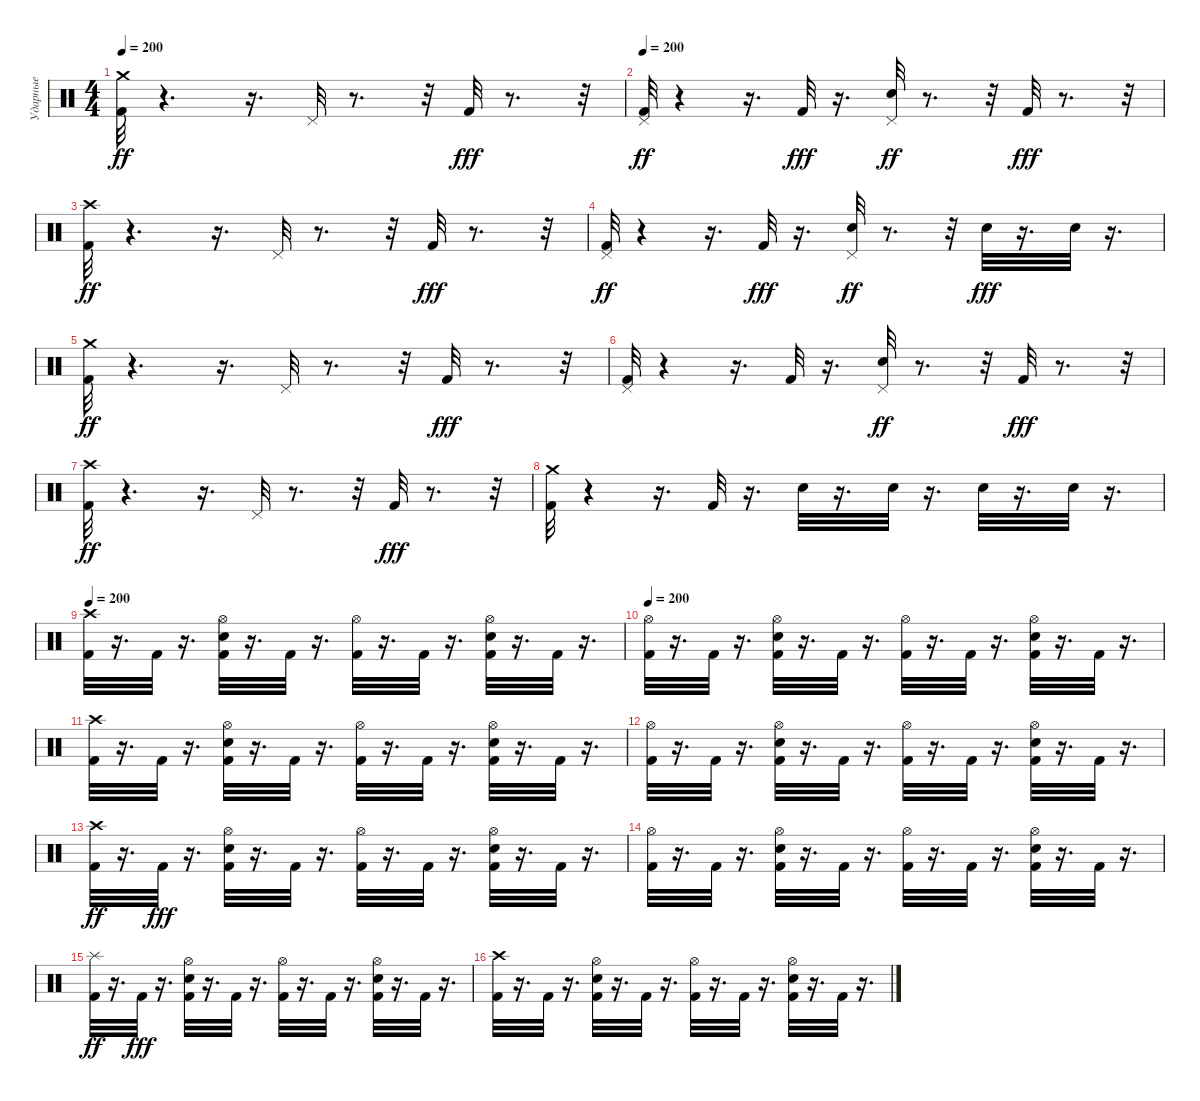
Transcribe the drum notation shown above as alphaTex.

\track ("Ударные" "Ударные") {instrument percussion}
\staff {score}
\articulation defaults
\ts (4 4)
\tempo 200
\clef neutral
\ks c
("Kick (hit) 2" "Crash medium (hit)").32{dy ff} r.4{d} r.16{d} "Pedal Hi-Hat (hit)".32 r.8{d} r.32 "Kick (hit) 2".32{dy fff} r.8{d} r.32 |
\tempo 200
("Kick (hit) 2" "Pedal Hi-Hat (hit)").32{dy ff} r.4 r.16{d} "Kick (hit) 2".32{dy fff} r.16{d} ("Snare (hit) 2" "Pedal Hi-Hat (hit)").32{dy ff} r.8{d} r.32 "Kick (hit) 2".32{dy fff} r.8{d} r.32 |
("Kick (hit) 2" "Crash high (hit)").32{dy ff} r.4{d} r.16{d} "Pedal Hi-Hat (hit)".32 r.8{d} r.32 "Kick (hit) 2".32{dy fff} r.8{d} r.32 |
("Kick (hit) 2" "Pedal Hi-Hat (hit)").32{dy ff} r.4 r.16{d} "Kick (hit) 2".32{dy fff} r.16{d} ("Snare (hit) 2" "Pedal Hi-Hat (hit)").32{dy ff} r.8{d} r.32 "Snare (hit) 2".32{dy fff} r.16{d} "Snare (hit) 2".32 r.16{d} |
("Kick (hit) 2" "Crash medium (hit)").32{dy ff} r.4{d} r.16{d} "Pedal Hi-Hat (hit)".32 r.8{d} r.32 "Kick (hit) 2".32{dy fff} r.8{d} r.32 |
("Pedal Hi-Hat (hit)" "Kick (hit) 2").32 r.4 r.16{d} "Kick (hit) 2".32 r.16{d} ("Snare (hit) 2" "Pedal Hi-Hat (hit)").32{dy ff} r.8{d} r.32 "Kick (hit) 2".32{dy fff} r.8{d} r.32 |
("Kick (hit) 2" "Crash high (hit)").32{dy ff} r.4{d} r.16{d} "Pedal Hi-Hat (hit)".32 r.8{d} r.32 "Kick (hit) 2".32{dy fff} r.8{d} r.32 |
("Crash medium (hit)" "Kick (hit) 2").32 r.4 r.16{d} "Kick (hit) 2".32 r.16{d} "Snare (hit) 2".32 r.16{d} "Snare (hit) 2".32 r.16{d} "Snare (hit) 2".32 r.16{d} "Snare (hit) 2".32 r.16{d} |
\tempo 200
("Crash high (hit)" "Kick (hit) 2").32 r.16{d} "Kick (hit) 2".32 r.16{d} ("Kick (hit) 2" "Snare (hit) 2" "Hi-Hat (open)").32 r.16{d} "Kick (hit) 2".32 r.16{d} ("Kick (hit) 2" "Hi-Hat (open)").32 r.16{d} "Kick (hit) 2".32 r.16{d} ("Kick (hit) 2" "Hi-Hat (open)" "Snare (hit) 2").32 r.16{d} "Kick (hit) 2".32 r.16{d} |
\tempo 200
("Hi-Hat (open)" "Kick (hit) 2").32 r.16{d} "Kick (hit) 2".32 r.16{d} ("Kick (hit) 2" "Snare (hit) 2" "Hi-Hat (open)").32 r.16{d} "Kick (hit) 2".32 r.16{d} ("Hi-Hat (open)" "Kick (hit) 2").32 r.16{d} "Kick (hit) 2".32 r.16{d} ("Kick (hit) 2" "Hi-Hat (open)" "Snare (hit) 2").32 r.16{d} "Kick (hit) 2".32 r.16{d} |
("Crash high (hit)" "Kick (hit) 2").32 r.16{d} "Kick (hit) 2".32 r.16{d} ("Kick (hit) 2" "Snare (hit) 2" "Hi-Hat (open)").32 r.16{d} "Kick (hit) 2".32 r.16{d} ("Kick (hit) 2" "Hi-Hat (open)").32 r.16{d} "Kick (hit) 2".32 r.16{d} ("Kick (hit) 2" "Hi-Hat (open)" "Snare (hit) 2").32 r.16{d} "Kick (hit) 2".32 r.16{d} |
("Kick (hit) 2" "Hi-Hat (open)").32 r.16{d} "Kick (hit) 2".32 r.16{d} ("Kick (hit) 2" "Hi-Hat (open)" "Snare (hit) 2").32 r.16{d} "Kick (hit) 2".32 r.16{d} ("Hi-Hat (open)" "Kick (hit) 2").32 r.16{d} "Kick (hit) 2".32 r.16{d} ("Kick (hit) 2" "Hi-Hat (open)" "Snare (hit) 2").32 r.16{d} "Kick (hit) 2".32 r.16{d} |
("Kick (hit) 2" "Crash high (hit)").32{dy ff} r.16{d} "Kick (hit) 2".32{dy fff} r.16{d} ("Kick (hit) 2" "Snare (hit) 2" "Hi-Hat (open)").32 r.16{d} "Kick (hit) 2".32 r.16{d} ("Hi-Hat (open)" "Kick (hit) 2").32 r.16{d} "Kick (hit) 2".32 r.16{d} ("Kick (hit) 2" "Snare (hit) 2" "Hi-Hat (open)").32 r.16{d} "Kick (hit) 2".32 r.16{d} |
("Hi-Hat (open)" "Kick (hit) 2").32 r.16{d} "Kick (hit) 2".32 r.16{d} ("Kick (hit) 2" "Snare (hit) 2" "Hi-Hat (open)").32 r.16{d} "Kick (hit) 2".32 r.16{d} ("Kick (hit) 2" "Hi-Hat (open)").32 r.16{d} "Kick (hit) 2".32 r.16{d} ("Kick (hit) 2" "Hi-Hat (open)" "Snare (hit) 2").32 r.16{d} "Kick (hit) 2".32 r.16{d} |
("Kick (hit) 2" "Splash (hit)").32{dy ff} r.16{d} "Kick (hit) 2".32{dy fff} r.16{d} ("Kick (hit) 2" "Snare (hit) 2" "Hi-Hat (open)").32 r.16{d} "Kick (hit) 2".32 r.16{d} ("Hi-Hat (open)" "Kick (hit) 2").32 r.16{d} "Kick (hit) 2".32 r.16{d} ("Kick (hit) 2" "Hi-Hat (open)" "Snare (hit) 2").32 r.16{d} "Kick (hit) 2".32 r.16{d} |
("Crash high (hit)" "Kick (hit) 2").32 r.16{d} "Kick (hit) 2".32 r.16{d} ("Kick (hit) 2" "Snare (hit) 2" "Hi-Hat (open)").32 r.16{d} "Kick (hit) 2".32 r.16{d} ("Kick (hit) 2" "Hi-Hat (open)").32 r.16{d} "Kick (hit) 2".32 r.16{d} ("Kick (hit) 2" "Hi-Hat (open)" "Snare (hit) 2").32 r.16{d} "Kick (hit) 2".32 r.16{d}
